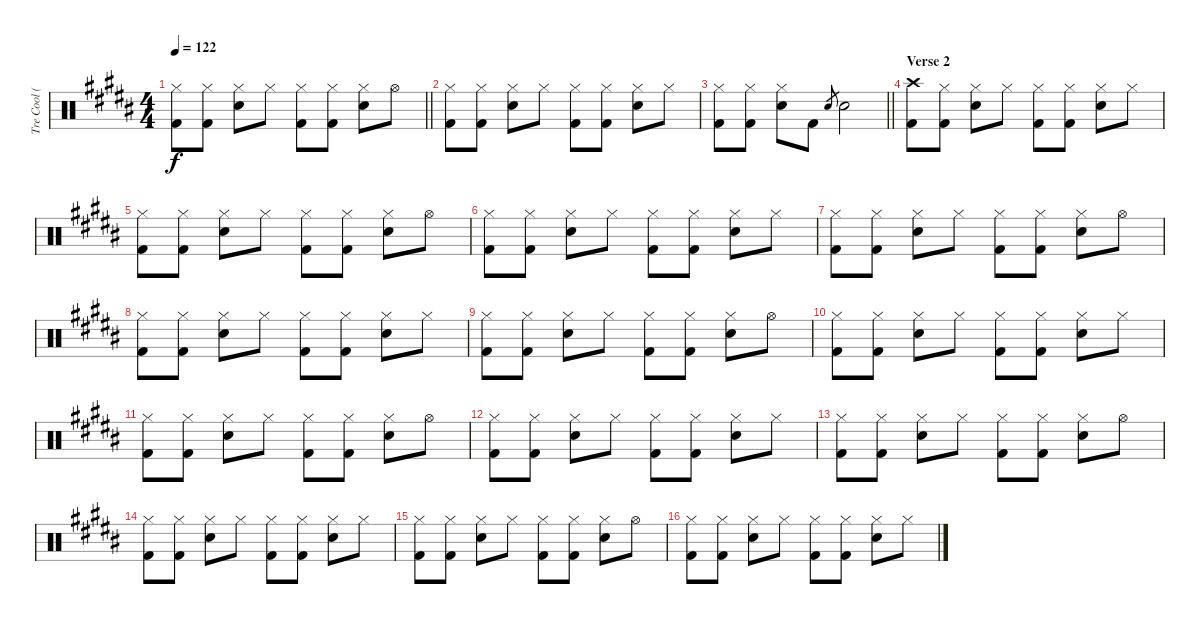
\track ("Tre Cool (Drums)" "Tre Cool (") {instrument percussion}
\staff {score}
\articulation defaults
\ts (4 4)
\tempo 122
\clef neutral
\barLineRight lightlight
\ks b
("Hi-Hat (closed)" "Kick (hit) 2").8{dy f} ("Hi-Hat (closed)" "Kick (hit) 2").8 ("Hi-Hat (closed)" "Electric Snare (hit)").8 "Hi-Hat (closed)".8 ("Hi-Hat (closed)" "Kick (hit) 2").8 ("Hi-Hat (closed)" "Kick (hit) 2").8 ("Hi-Hat (closed)" "Electric Snare (hit)").8 "Hi-Hat (open)".8 |
("Hi-Hat (closed)" "Kick (hit) 2").8 ("Hi-Hat (closed)" "Kick (hit) 2").8 ("Hi-Hat (closed)" "Electric Snare (hit)").8 "Hi-Hat (closed)".8 ("Hi-Hat (closed)" "Kick (hit) 2").8 ("Hi-Hat (closed)" "Kick (hit) 2").8 ("Hi-Hat (closed)" "Electric Snare (hit)").8 "Hi-Hat (closed)".8 |
\barLineRight lightlight
("Hi-Hat (closed)" "Kick (hit) 2").8 ("Hi-Hat (closed)" "Kick (hit) 2").8 ("Hi-Hat (closed)" "Electric Snare (hit)").8 "Kick (hit) 2".8{volume 9} "Electric Snare (hit)".8{gr} "Electric Snare (hit)".2 |
\section ("" "Verse 2")
("Crash high (hit)" "Kick (hit) 2").8 ("Hi-Hat (closed)" "Kick (hit) 2").8 ("Hi-Hat (closed)" "Electric Snare (hit)").8 "Hi-Hat (closed)".8 ("Hi-Hat (closed)" "Kick (hit) 2").8 ("Hi-Hat (closed)" "Kick (hit) 2").8 ("Hi-Hat (closed)" "Electric Snare (hit)").8 "Hi-Hat (closed)".8 |
("Hi-Hat (closed)" "Kick (hit) 2").8 ("Hi-Hat (closed)" "Kick (hit) 2").8 ("Hi-Hat (closed)" "Electric Snare (hit)").8 "Hi-Hat (closed)".8 ("Hi-Hat (closed)" "Kick (hit) 2").8 ("Hi-Hat (closed)" "Kick (hit) 2").8 ("Hi-Hat (closed)" "Electric Snare (hit)").8 "Hi-Hat (open)".8 |
("Hi-Hat (closed)" "Kick (hit) 2").8 ("Hi-Hat (closed)" "Kick (hit) 2").8 ("Hi-Hat (closed)" "Electric Snare (hit)").8 "Hi-Hat (closed)".8 ("Hi-Hat (closed)" "Kick (hit) 2").8 ("Hi-Hat (closed)" "Kick (hit) 2").8 ("Hi-Hat (closed)" "Electric Snare (hit)").8 "Hi-Hat (closed)".8 |
("Hi-Hat (closed)" "Kick (hit) 2").8 ("Hi-Hat (closed)" "Kick (hit) 2").8 ("Hi-Hat (closed)" "Electric Snare (hit)").8 "Hi-Hat (closed)".8 ("Hi-Hat (closed)" "Kick (hit) 2").8 ("Hi-Hat (closed)" "Kick (hit) 2").8 ("Hi-Hat (closed)" "Electric Snare (hit)").8 "Hi-Hat (open)".8 |
("Hi-Hat (closed)" "Kick (hit) 2").8 ("Hi-Hat (closed)" "Kick (hit) 2").8 ("Hi-Hat (closed)" "Electric Snare (hit)").8 "Hi-Hat (closed)".8 ("Hi-Hat (closed)" "Kick (hit) 2").8 ("Hi-Hat (closed)" "Kick (hit) 2").8 ("Hi-Hat (closed)" "Electric Snare (hit)").8 "Hi-Hat (closed)".8 |
("Hi-Hat (closed)" "Kick (hit) 2").8 ("Hi-Hat (closed)" "Kick (hit) 2").8 ("Hi-Hat (closed)" "Electric Snare (hit)").8 "Hi-Hat (closed)".8 ("Hi-Hat (closed)" "Kick (hit) 2").8 ("Hi-Hat (closed)" "Kick (hit) 2").8 ("Hi-Hat (closed)" "Electric Snare (hit)").8 "Hi-Hat (open)".8 |
("Hi-Hat (closed)" "Kick (hit) 2").8 ("Hi-Hat (closed)" "Kick (hit) 2").8 ("Hi-Hat (closed)" "Electric Snare (hit)").8 "Hi-Hat (closed)".8 ("Hi-Hat (closed)" "Kick (hit) 2").8 ("Hi-Hat (closed)" "Kick (hit) 2").8 ("Hi-Hat (closed)" "Electric Snare (hit)").8 "Hi-Hat (closed)".8 |
("Hi-Hat (closed)" "Kick (hit) 2").8 ("Hi-Hat (closed)" "Kick (hit) 2").8 ("Hi-Hat (closed)" "Electric Snare (hit)").8 "Hi-Hat (closed)".8 ("Hi-Hat (closed)" "Kick (hit) 2").8 ("Hi-Hat (closed)" "Kick (hit) 2").8 ("Hi-Hat (closed)" "Electric Snare (hit)").8 "Hi-Hat (open)".8 |
("Hi-Hat (closed)" "Kick (hit) 2").8 ("Hi-Hat (closed)" "Kick (hit) 2").8 ("Hi-Hat (closed)" "Electric Snare (hit)").8 "Hi-Hat (closed)".8 ("Hi-Hat (closed)" "Kick (hit) 2").8 ("Hi-Hat (closed)" "Kick (hit) 2").8 ("Hi-Hat (closed)" "Electric Snare (hit)").8 "Hi-Hat (closed)".8 |
("Hi-Hat (closed)" "Kick (hit) 2").8 ("Hi-Hat (closed)" "Kick (hit) 2").8 ("Hi-Hat (closed)" "Electric Snare (hit)").8 "Hi-Hat (closed)".8 ("Hi-Hat (closed)" "Kick (hit) 2").8 ("Hi-Hat (closed)" "Kick (hit) 2").8 ("Hi-Hat (closed)" "Electric Snare (hit)").8 "Hi-Hat (open)".8 |
("Hi-Hat (closed)" "Kick (hit) 2").8 ("Hi-Hat (closed)" "Kick (hit) 2").8 ("Hi-Hat (closed)" "Electric Snare (hit)").8 "Hi-Hat (closed)".8 ("Hi-Hat (closed)" "Kick (hit) 2").8 ("Hi-Hat (closed)" "Kick (hit) 2").8 ("Hi-Hat (closed)" "Electric Snare (hit)").8 "Hi-Hat (closed)".8 |
("Hi-Hat (closed)" "Kick (hit) 2").8 ("Hi-Hat (closed)" "Kick (hit) 2").8 ("Hi-Hat (closed)" "Electric Snare (hit)").8 "Hi-Hat (closed)".8 ("Hi-Hat (closed)" "Kick (hit) 2").8 ("Hi-Hat (closed)" "Kick (hit) 2").8 ("Hi-Hat (closed)" "Electric Snare (hit)").8 "Hi-Hat (open)".8 |
("Hi-Hat (closed)" "Kick (hit) 2").8 ("Hi-Hat (closed)" "Kick (hit) 2").8 ("Hi-Hat (closed)" "Electric Snare (hit)").8 "Hi-Hat (closed)".8 ("Hi-Hat (closed)" "Kick (hit) 2").8 ("Hi-Hat (closed)" "Kick (hit) 2").8 ("Hi-Hat (closed)" "Electric Snare (hit)").8 "Hi-Hat (closed)".8
